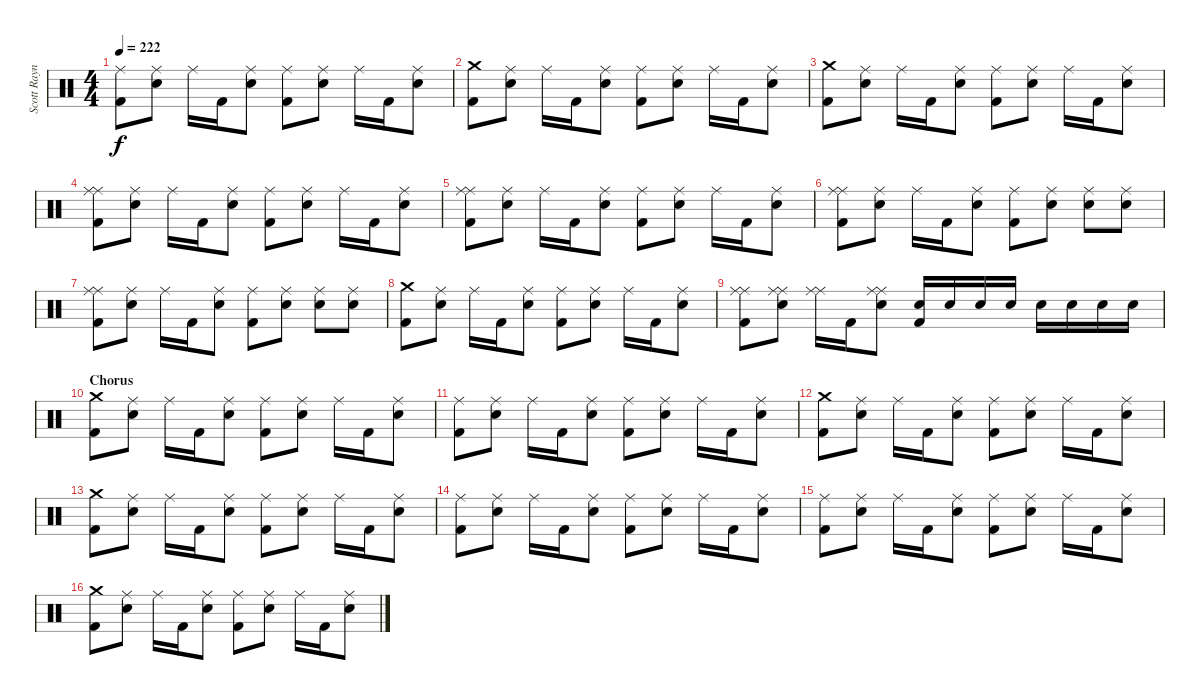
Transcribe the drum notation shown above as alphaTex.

\track ("Scott Raynor - Bateria/Drums" "Scott Rayn") {instrument percussion}
\staff {score}
\articulation defaults
\ts (4 4)
\tempo 222
\clef neutral
\ks c
("Ride (middle)" "Kick (hit) 2").8{dy f} ("Ride (middle)" "Electric Snare (hit)").8 "Ride (middle)".16 "Kick (hit) 2".16 ("Ride (middle)" "Electric Snare (hit)").8 ("Ride (middle)" "Kick (hit) 2").8 ("Ride (middle)" "Electric Snare (hit)").8 "Ride (middle)".16 "Kick (hit) 2".16 ("Ride (middle)" "Electric Snare (hit)").8 |
("Crash medium (hit)" "Kick (hit) 2").8 ("Ride (middle)" "Electric Snare (hit)").8 "Ride (middle)".16 "Kick (hit) 2".16 ("Ride (middle)" "Electric Snare (hit)").8 ("Ride (middle)" "Kick (hit) 2").8 ("Ride (middle)" "Electric Snare (hit)").8 "Ride (middle)".16 "Kick (hit) 2".16 ("Ride (middle)" "Electric Snare (hit)").8 |
("Crash medium (hit)" "Kick (hit) 2").8 ("Ride (middle)" "Electric Snare (hit)").8 "Ride (middle)".16 "Kick (hit) 2".16 ("Ride (middle)" "Electric Snare (hit)").8 ("Ride (middle)" "Kick (hit) 2").8 ("Ride (middle)" "Electric Snare (hit)").8 "Ride (middle)".16 "Kick (hit) 2".16 ("Ride (middle)" "Electric Snare (hit)").8 |
("Ride (middle)" "Ride (middle)" "Kick (hit) 2").8 ("Ride (middle)" "Electric Snare (hit)").8 "Ride (middle)".16 "Kick (hit) 2".16 ("Ride (middle)" "Electric Snare (hit)").8 ("Ride (middle)" "Kick (hit) 2").8 ("Ride (middle)" "Electric Snare (hit)").8 "Ride (middle)".16 "Kick (hit) 2".16 ("Ride (middle)" "Electric Snare (hit)").8 |
("Ride (middle)" "Ride (middle)" "Kick (hit) 2").8 ("Ride (middle)" "Electric Snare (hit)").8 "Ride (middle)".16 "Kick (hit) 2".16 ("Ride (middle)" "Electric Snare (hit)").8 ("Ride (middle)" "Kick (hit) 2").8 ("Ride (middle)" "Electric Snare (hit)").8 "Ride (middle)".16 "Kick (hit) 2".16 ("Ride (middle)" "Electric Snare (hit)").8 |
("Ride (middle)" "Ride (middle)" "Kick (hit) 2").8 ("Ride (middle)" "Electric Snare (hit)").8 "Ride (middle)".16 "Kick (hit) 2".16 ("Ride (middle)" "Electric Snare (hit)").8 ("Ride (middle)" "Kick (hit) 2").8 ("Ride (middle)" "Electric Snare (hit)").8 ("Ride (middle)" "Electric Snare (hit)").8 ("Ride (middle)" "Electric Snare (hit)").8 |
("Ride (middle)" "Ride (middle)" "Kick (hit) 2").8 ("Ride (middle)" "Electric Snare (hit)").8 "Ride (middle)".16 "Kick (hit) 2".16 ("Ride (middle)" "Electric Snare (hit)").8 ("Ride (middle)" "Kick (hit) 2").8 ("Ride (middle)" "Electric Snare (hit)").8 ("Ride (middle)" "Electric Snare (hit)").8 ("Ride (middle)" "Electric Snare (hit)").8 |
("Crash medium (hit)" "Kick (hit) 2").8 ("Ride (middle)" "Electric Snare (hit)").8 "Ride (middle)".16 "Kick (hit) 2".16 ("Ride (middle)" "Electric Snare (hit)").8 ("Ride (middle)" "Kick (hit) 2").8 ("Ride (middle)" "Electric Snare (hit)").8 "Ride (middle)".16 "Kick (hit) 2".16 ("Ride (middle)" "Electric Snare (hit)").8 |
("Ride (middle)" "Ride (middle)" "Kick (hit) 2").8 ("Ride (middle)" "Ride (middle)" "Electric Snare (hit)").8 ("Ride (middle)" "Ride (middle)").16 "Kick (hit) 2".16 ("Ride (middle)" "Ride (middle)" "Electric Snare (hit)").8 ("Electric Snare (hit)" "Kick (hit) 2").16 "Electric Snare (hit)".16 "Electric Snare (hit)".16 "Electric Snare (hit)".16 "Electric Snare (hit)".16 "Electric Snare (hit)".16 "Electric Snare (hit)".16 "Electric Snare (hit)".16 |
\section ("" "Chorus")
("Crash medium (hit)" "Kick (hit) 2").8 ("Ride (middle)" "Electric Snare (hit)").8 "Ride (middle)".16 "Kick (hit) 2".16 ("Ride (middle)" "Electric Snare (hit)").8 ("Ride (middle)" "Kick (hit) 2").8 ("Ride (middle)" "Electric Snare (hit)").8 "Ride (middle)".16 "Kick (hit) 2".16 ("Ride (middle)" "Electric Snare (hit)").8 |
("Ride (middle)" "Kick (hit) 2").8 ("Ride (middle)" "Electric Snare (hit)").8 "Ride (middle)".16 "Kick (hit) 2".16 ("Ride (middle)" "Electric Snare (hit)").8 ("Ride (middle)" "Kick (hit) 2").8 ("Ride (middle)" "Electric Snare (hit)").8 "Ride (middle)".16 "Kick (hit) 2".16 ("Ride (middle)" "Electric Snare (hit)").8 |
("Crash medium (hit)" "Kick (hit) 2").8 ("Ride (middle)" "Electric Snare (hit)").8 "Ride (middle)".16 "Kick (hit) 2".16 ("Ride (middle)" "Electric Snare (hit)").8 ("Ride (middle)" "Kick (hit) 2").8 ("Ride (middle)" "Electric Snare (hit)").8 "Ride (middle)".16 "Kick (hit) 2".16 ("Ride (middle)" "Electric Snare (hit)").8 |
("Crash medium (hit)" "Kick (hit) 2").8 ("Ride (middle)" "Electric Snare (hit)").8 "Ride (middle)".16 "Kick (hit) 2".16 ("Ride (middle)" "Electric Snare (hit)").8 ("Ride (middle)" "Kick (hit) 2").8 ("Ride (middle)" "Electric Snare (hit)").8 "Ride (middle)".16 "Kick (hit) 2".16 ("Ride (middle)" "Electric Snare (hit)").8 |
("Ride (middle)" "Kick (hit) 2").8 ("Ride (middle)" "Electric Snare (hit)").8 "Ride (middle)".16 "Kick (hit) 2".16 ("Ride (middle)" "Electric Snare (hit)").8 ("Ride (middle)" "Kick (hit) 2").8 ("Ride (middle)" "Electric Snare (hit)").8 "Ride (middle)".16 "Kick (hit) 2".16 ("Ride (middle)" "Electric Snare (hit)").8 |
("Ride (middle)" "Kick (hit) 2").8 ("Ride (middle)" "Electric Snare (hit)").8 "Ride (middle)".16 "Kick (hit) 2".16 ("Ride (middle)" "Electric Snare (hit)").8 ("Ride (middle)" "Kick (hit) 2").8 ("Ride (middle)" "Electric Snare (hit)").8 "Ride (middle)".16 "Kick (hit) 2".16 ("Ride (middle)" "Electric Snare (hit)").8 |
("Crash medium (hit)" "Kick (hit) 2").8 ("Ride (middle)" "Electric Snare (hit)").8 "Ride (middle)".16 "Kick (hit) 2".16 ("Ride (middle)" "Electric Snare (hit)").8 ("Ride (middle)" "Kick (hit) 2").8 ("Ride (middle)" "Electric Snare (hit)").8 "Ride (middle)".16 "Kick (hit) 2".16 ("Ride (middle)" "Electric Snare (hit)").8
